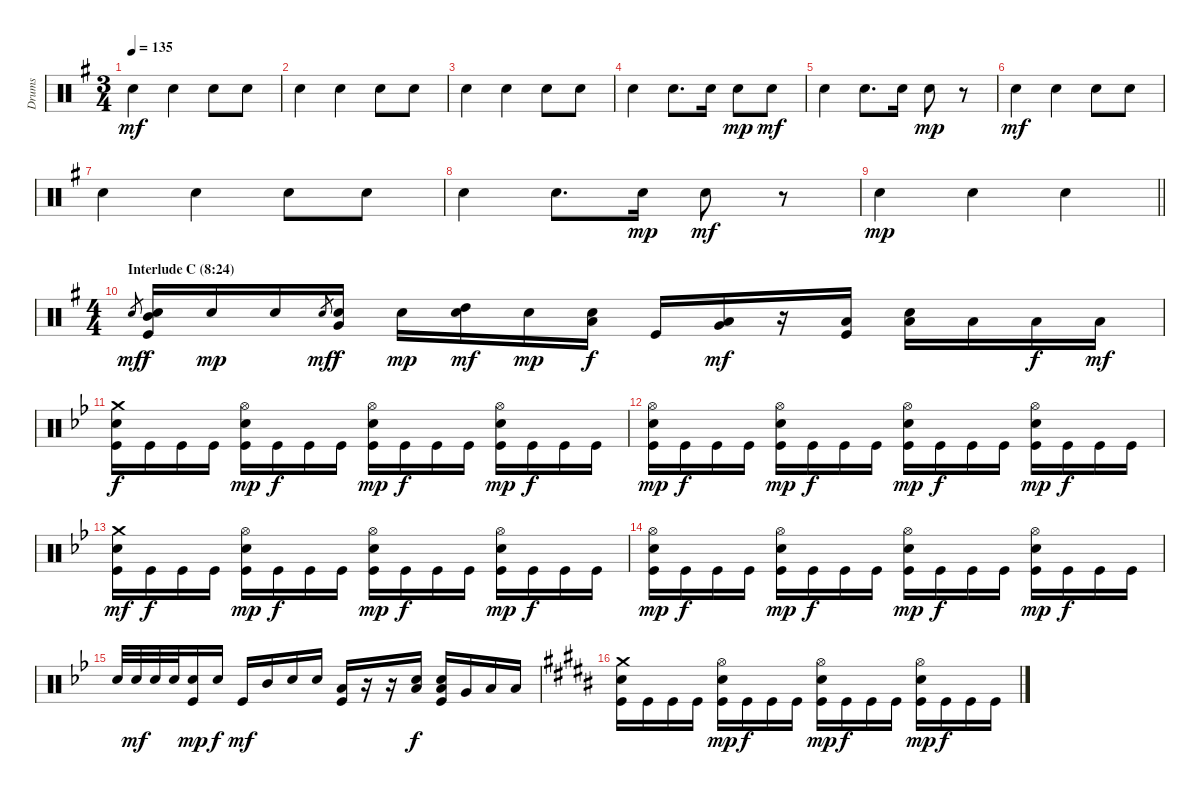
\track ("Drums" "Drums") {instrument percussion}
\staff {score}
\articulation defaults
\ts (3 4)
\tempo 135
\clef neutral
\ks eminor "Snare (hit) 2".4{dy mf} "Snare (hit) 2".4 "Snare (hit) 2".8 "Snare (hit) 2".8
|
"Snare (hit) 2".4 "Snare (hit) 2".4 "Snare (hit) 2".8 "Snare (hit) 2".8 |
"Snare (hit) 2".4 "Snare (hit) 2".4 "Snare (hit) 2".8 "Snare (hit) 2".8 |
"Snare (hit) 2".4 "Snare (hit) 2".8{d} "Snare (hit) 2".16 "Snare (hit) 2".8{dy mp} "Snare (hit) 2".8{dy mf} |
"Snare (hit) 2".4 "Snare (hit) 2".8{d} "Snare (hit) 2".16 "Snare (hit) 2".8{dy mp} r.8 |
"Snare (hit) 2".4{dy mf} "Snare (hit) 2".4 "Snare (hit) 2".8 "Snare (hit) 2".8 |
"Snare (hit) 2".4 "Snare (hit) 2".4 "Snare (hit) 2".8 "Snare (hit) 2".8 |
"Snare (hit) 2".4 "Snare (hit) 2".8{d} "Snare (hit) 2".16{dy mp} "Snare (hit) 2".8{dy mf} r.8 |
\barLineRight lightlight "Snare (hit) 2".4{dy mp} "Snare (hit) 2".4 "Snare (hit) 2".4
|
\ts (4 4)
\section ("" "Interlude C (8:24)")
"Snare (hit) 2".8{gr dy mf} ("Mid Tom (hit)" "Snare (hit) 2" "Kick (hit)").16{dy f} "Snare (hit) 2".16{dy mp} "Snare (hit) 2".16 "Snare (hit) 2".8{gr dy mf} ("Very Low Tom (hit)" "Snare (hit) 2").16{dy f} "Snare (hit) 2".16{dy mp} ("High Tom (hit)" "Snare (hit) 2").16{dy mf} "Snare (hit) 2".16{dy mp} ("Low Floor Tom (hit)" "Snare (hit) 2").16{dy f} "Kick (hit)".16 ("Low Tom (hit)" "Very Low Tom (hit)").16{dy mf} r.16 ("Low Tom (hit)" "Kick (hit)").16 ("Low Tom (hit)" "Snare (hit) 2").16 "Low Tom (hit)".16 "Low Tom (hit)".16{dy f} "Low Tom (hit)".16{dy mf} |
\ks gminor
("Crash medium (hit)" "Snare (hit) 2" "Kick (hit)").16{dy f} "Kick (hit)".16 "Kick (hit)".16 "Kick (hit)".16 ("Hi-Hat (open)" "Snare (hit) 2" "Kick (hit)").16{dy mp} "Kick (hit)".16{dy f} "Kick (hit)".16 "Kick (hit)".16 ("Hi-Hat (open)" "Snare (hit) 2" "Kick (hit)").16{dy mp} "Kick (hit)".16{dy f} "Kick (hit)".16 "Kick (hit)".16 ("Hi-Hat (open)" "Snare (hit) 2" "Kick (hit)").16{dy mp} "Kick (hit)".16{dy f} "Kick (hit)".16 "Kick (hit)".16 |
("Hi-Hat (open)" "Snare (hit) 2" "Kick (hit)").16{dy mp} "Kick (hit)".16{dy f} "Kick (hit)".16 "Kick (hit)".16 ("Hi-Hat (open)" "Snare (hit) 2" "Kick (hit)").16{dy mp} "Kick (hit)".16{dy f} "Kick (hit)".16 "Kick (hit)".16 ("Hi-Hat (open)" "Snare (hit) 2" "Kick (hit)").16{dy mp} "Kick (hit)".16{dy f} "Kick (hit)".16 "Kick (hit)".16 ("Hi-Hat (open)" "Snare (hit) 2" "Kick (hit)").16{dy mp} "Kick (hit)".16{dy f} "Kick (hit)".16 "Kick (hit)".16 |
("Crash medium (hit)" "Snare (hit) 2" "Kick (hit)").16{dy mf} "Kick (hit)".16{dy f} "Kick (hit)".16 "Kick (hit)".16 ("Hi-Hat (open)" "Snare (hit) 2" "Kick (hit)").16{dy mp} "Kick (hit)".16{dy f} "Kick (hit)".16 "Kick (hit)".16 ("Hi-Hat (open)" "Snare (hit) 2" "Kick (hit)").16{dy mp} "Kick (hit)".16{dy f} "Kick (hit)".16 "Kick (hit)".16 ("Hi-Hat (open)" "Snare (hit) 2" "Kick (hit)").16{dy mp} "Kick (hit)".16{dy f} "Kick (hit)".16 "Kick (hit)".16 |
("Hi-Hat (open)" "Snare (hit) 2" "Kick (hit)").16{dy mp} "Kick (hit)".16{dy f} "Kick (hit)".16 "Kick (hit)".16 ("Hi-Hat (open)" "Snare (hit) 2" "Kick (hit)").16{dy mp} "Kick (hit)".16{dy f} "Kick (hit)".16 "Kick (hit)".16 ("Hi-Hat (open)" "Snare (hit) 2" "Kick (hit)").16{dy mp} "Kick (hit)".16{dy f} "Kick (hit)".16 "Kick (hit)".16 ("Hi-Hat (open)" "Snare (hit) 2" "Kick (hit)").16{dy mp} "Kick (hit)".16{dy f} "Kick (hit)".16 "Kick (hit)".16 |
"Snare (hit) 2".32 "Snare (hit) 2".32{dy mf} "Snare (hit) 2".32 "Snare (hit) 2".32 ("Snare (hit) 2" "Kick (hit)").16{dy mp} "Snare (hit) 2".16{dy f} "Kick (hit)".16{dy mf} "Mid Tom (hit)".16 "Snare (hit) 2".16 "Snare (hit) 2".16 ("Low Tom (hit)" "Kick (hit)").16 r.16 r.16 ("Low Tom (hit)" "Snare (hit) 2").16{dy f} ("Low Tom (hit)" "Snare (hit) 2" "Kick (hit)").16 "Very Low Tom (hit)".16 "Low Floor Tom (hit)".16 "Low Floor Tom (hit)".16 |
\ks g#minor
("Crash medium (hit)" "Snare (hit) 2" "Kick (hit)").16 "Kick (hit)".16 "Kick (hit)".16 "Kick (hit)".16 ("Hi-Hat (open)" "Snare (hit) 2" "Kick (hit)").16{dy mp} "Kick (hit)".16{dy f} "Kick (hit)".16 "Kick (hit)".16 ("Hi-Hat (open)" "Snare (hit) 2" "Kick (hit)").16{dy mp} "Kick (hit)".16{dy f} "Kick (hit)".16 "Kick (hit)".16 ("Hi-Hat (open)" "Snare (hit) 2" "Kick (hit)").16{dy mp} "Kick (hit)".16{dy f} "Kick (hit)".16 "Kick (hit)".16
